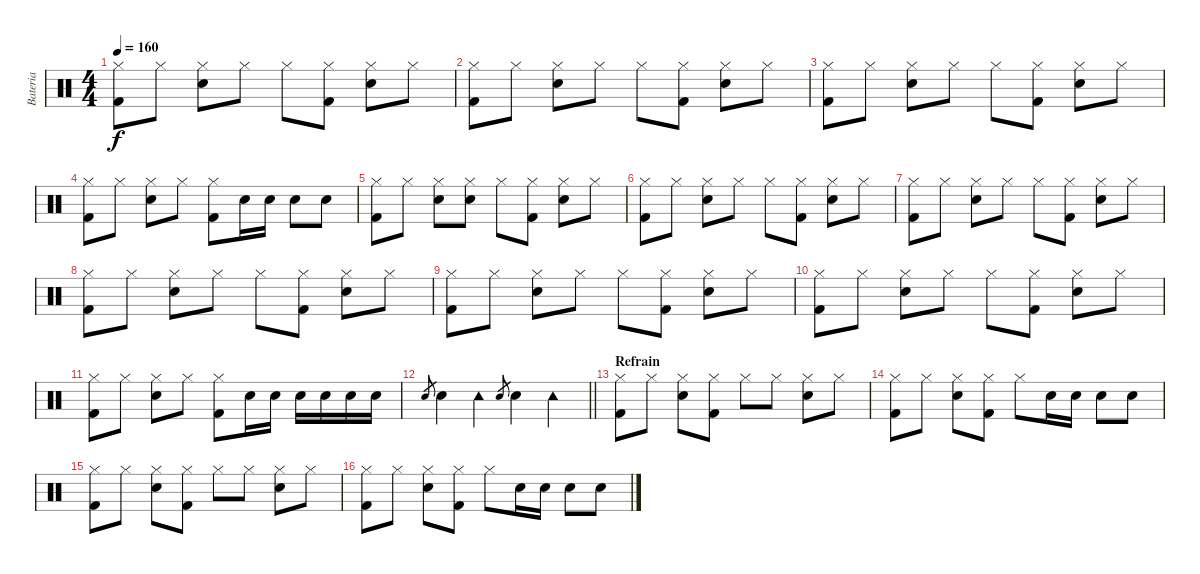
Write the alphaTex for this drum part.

\track ("Bateria" "Bateria") {instrument percussion}
\staff {score}
\articulation defaults
\ts (4 4)
\tempo 160
\clef neutral
\ks c
("Hi-Hat (closed)" "Kick (hit) 2").8{dy f} "Hi-Hat (closed)".8 ("Hi-Hat (closed)" "Electric Snare (hit)").8 "Hi-Hat (closed)".8 "Hi-Hat (closed)".8 ("Hi-Hat (closed)" "Kick (hit) 2").8 ("Hi-Hat (closed)" "Electric Snare (hit)").8 "Hi-Hat (closed)".8 |
("Hi-Hat (closed)" "Kick (hit) 2").8 "Hi-Hat (closed)".8 ("Hi-Hat (closed)" "Electric Snare (hit)").8 "Hi-Hat (closed)".8 "Hi-Hat (closed)".8 ("Hi-Hat (closed)" "Kick (hit) 2").8 ("Hi-Hat (closed)" "Electric Snare (hit)").8 "Hi-Hat (closed)".8 |
("Hi-Hat (closed)" "Kick (hit) 2").8 "Hi-Hat (closed)".8 ("Hi-Hat (closed)" "Electric Snare (hit)").8 "Hi-Hat (closed)".8 "Hi-Hat (closed)".8 ("Hi-Hat (closed)" "Kick (hit) 2").8 ("Hi-Hat (closed)" "Electric Snare (hit)").8 "Hi-Hat (closed)".8 |
("Hi-Hat (closed)" "Kick (hit) 2").8 "Hi-Hat (closed)".8 ("Hi-Hat (closed)" "Electric Snare (hit)").8 "Hi-Hat (closed)".8 ("Hi-Hat (closed)" "Kick (hit) 2").8 "Electric Snare (hit)".16 "Electric Snare (hit)".16 "Electric Snare (hit)".8 "Electric Snare (hit)".8 |
("Hi-Hat (closed)" "Kick (hit) 2").8 "Hi-Hat (closed)".8 ("Hi-Hat (closed)" "Electric Snare (hit)").8 ("Hi-Hat (closed)" "Electric Snare (hit)").8 "Hi-Hat (closed)".8 ("Hi-Hat (closed)" "Kick (hit) 2").8 ("Hi-Hat (closed)" "Electric Snare (hit)").8 "Hi-Hat (closed)".8 |
("Hi-Hat (closed)" "Kick (hit) 2").8 "Hi-Hat (closed)".8 ("Hi-Hat (closed)" "Electric Snare (hit)").8 "Hi-Hat (closed)".8 "Hi-Hat (closed)".8 ("Hi-Hat (closed)" "Kick (hit) 2").8 ("Hi-Hat (closed)" "Electric Snare (hit)").8 "Hi-Hat (closed)".8 |
("Hi-Hat (closed)" "Kick (hit) 2").8 "Hi-Hat (closed)".8 ("Hi-Hat (closed)" "Electric Snare (hit)").8 "Hi-Hat (closed)".8 "Hi-Hat (closed)".8 ("Hi-Hat (closed)" "Kick (hit) 2").8 ("Hi-Hat (closed)" "Electric Snare (hit)").8 "Hi-Hat (closed)".8 |
("Hi-Hat (closed)" "Kick (hit) 2").8 "Hi-Hat (closed)".8 ("Hi-Hat (closed)" "Electric Snare (hit)").8 "Hi-Hat (closed)".8 "Hi-Hat (closed)".8 ("Hi-Hat (closed)" "Kick (hit) 2").8 ("Hi-Hat (closed)" "Electric Snare (hit)").8 "Hi-Hat (closed)".8 |
("Hi-Hat (closed)" "Kick (hit) 2").8 "Hi-Hat (closed)".8 ("Hi-Hat (closed)" "Electric Snare (hit)").8 "Hi-Hat (closed)".8 "Hi-Hat (closed)".8 ("Hi-Hat (closed)" "Kick (hit) 2").8 ("Hi-Hat (closed)" "Electric Snare (hit)").8 "Hi-Hat (closed)".8 |
("Hi-Hat (closed)" "Kick (hit) 2").8 "Hi-Hat (closed)".8 ("Hi-Hat (closed)" "Electric Snare (hit)").8 "Hi-Hat (closed)".8 "Hi-Hat (closed)".8 ("Hi-Hat (closed)" "Kick (hit) 2").8 ("Hi-Hat (closed)" "Electric Snare (hit)").8 "Hi-Hat (closed)".8 |
("Hi-Hat (closed)" "Kick (hit) 2").8 "Hi-Hat (closed)".8 ("Hi-Hat (closed)" "Electric Snare (hit)").8 "Hi-Hat (closed)".8 ("Hi-Hat (closed)" "Kick (hit) 2").8 "Electric Snare (hit)".16 "Electric Snare (hit)".16 "Electric Snare (hit)".16 "Electric Snare (hit)".16 "Electric Snare (hit)".16 "Electric Snare (hit)".16 |
\barLineRight lightlight "Electric Snare (hit)".8{gr} "Electric Snare (hit)".4 "Tambourine (hit)".4 "Electric Snare (hit)".8{gr} "Electric Snare (hit)".4 "Tambourine (hit)".4
|
\section ("" "Refrain")
("Hi-Hat (closed)" "Kick (hit) 2").8 "Hi-Hat (closed)".8 ("Hi-Hat (closed)" "Electric Snare (hit)").8 ("Hi-Hat (closed)" "Kick (hit) 2").8 "Hi-Hat (closed)".8 "Hi-Hat (closed)".8 ("Hi-Hat (closed)" "Electric Snare (hit)").8 "Hi-Hat (closed)".8 |
("Hi-Hat (closed)" "Kick (hit) 2").8 "Hi-Hat (closed)".8 ("Hi-Hat (closed)" "Electric Snare (hit)").8 ("Hi-Hat (closed)" "Kick (hit) 2").8 "Hi-Hat (closed)".8 "Electric Snare (hit)".16 "Electric Snare (hit)".16 "Electric Snare (hit)".8 "Electric Snare (hit)".8 |
("Hi-Hat (closed)" "Kick (hit) 2").8 "Hi-Hat (closed)".8 ("Hi-Hat (closed)" "Electric Snare (hit)").8 ("Hi-Hat (closed)" "Kick (hit) 2").8 "Hi-Hat (closed)".8 "Hi-Hat (closed)".8 ("Hi-Hat (closed)" "Electric Snare (hit)").8 "Hi-Hat (closed)".8 |
("Hi-Hat (closed)" "Kick (hit) 2").8 "Hi-Hat (closed)".8 ("Hi-Hat (closed)" "Electric Snare (hit)").8 ("Hi-Hat (closed)" "Kick (hit) 2").8 "Hi-Hat (closed)".8 "Electric Snare (hit)".16 "Electric Snare (hit)".16 "Electric Snare (hit)".8 "Electric Snare (hit)".8
